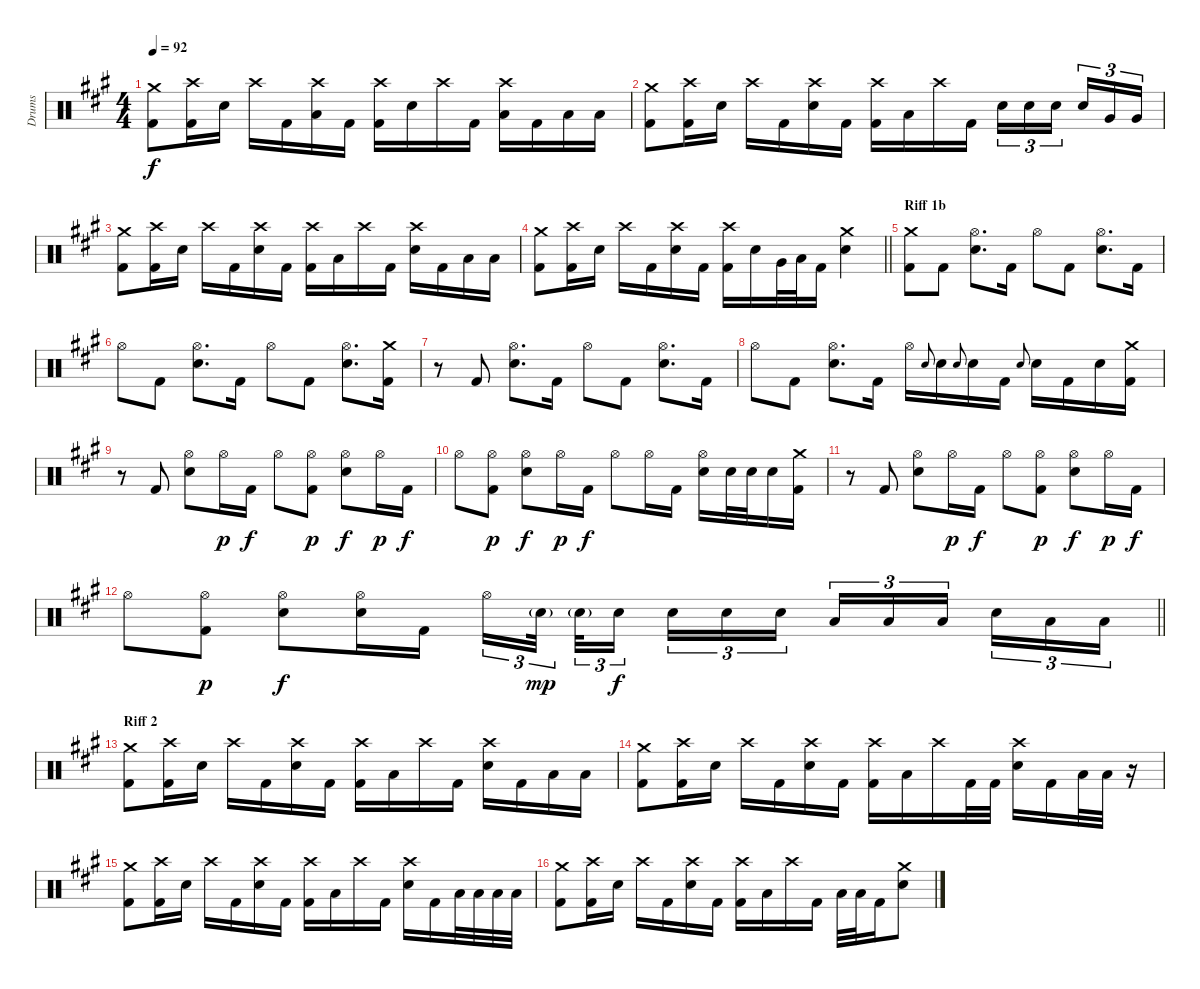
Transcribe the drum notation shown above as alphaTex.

\track ("Drums" "Drums") {instrument percussion}
\staff {score}
\articulation defaults
\ts (4 4)
\tempo 92
\clef neutral
\ks a
("Crash medium (hit)" "Kick (hit) 2").8{dy f} ("Kick (hit) 2" "Crash high (hit)").16 "Electric Snare (hit)".16 "Crash high (hit)".16 "Kick (hit) 2".16 ("Low Tom (hit)" "Crash high (hit)").16 "Kick (hit) 2".16 ("Crash high (hit)" "Kick (hit) 2").16 "Electric Snare (hit)".16 "Crash high (hit)".16 "Kick (hit) 2".16 ("Low Tom (hit)" "Crash high (hit)").16 "Kick (hit) 2".16 "Low Tom (hit)".16 "Low Floor Tom (hit)".16 |
("Crash medium (hit)" "Kick (hit) 2").8 ("Kick (hit) 2" "Crash high (hit)").16 "Electric Snare (hit)".16 "Crash high (hit)".16 "Kick (hit) 2".16 ("Electric Snare (hit)" "Crash high (hit)").16 "Kick (hit) 2".16 ("Crash high (hit)" "Kick (hit) 2").16 "Low Tom (hit)".16 "Crash high (hit)".16 "Kick (hit) 2".16 "Electric Snare (hit)".16{tu (3 2)} "Electric Snare (hit)".16{tu (3 2)} "Electric Snare (hit)".16{tu (3 2) beam splitsecondary} "Electric Snare (hit)".16{tu (3 2)} "Very Low Tom (hit)".16{tu (3 2)} "Very Low Tom (hit)".16{tu (3 2)} |
("Crash medium (hit)" "Kick (hit) 2").8 ("Kick (hit) 2" "Crash high (hit)").16 "Electric Snare (hit)".16 "Crash high (hit)".16 "Kick (hit) 2".16 ("Electric Snare (hit)" "Crash high (hit)").16 "Kick (hit) 2".16 ("Crash high (hit)" "Kick (hit) 2").16 "Low Tom (hit)".16 "Crash high (hit)".16 "Kick (hit) 2".16 ("Electric Snare (hit)" "Crash high (hit)").16 "Kick (hit) 2".16 "Low Floor Tom (hit)".16 "Low Floor Tom (hit)".16 |
\barLineRight lightlight
("Crash medium (hit)" "Kick (hit) 2").8 ("Kick (hit) 2" "Crash high (hit)").16 "Electric Snare (hit)".16 "Crash high (hit)".16 "Kick (hit) 2".16 ("Electric Snare (hit)" "Crash high (hit)").16 "Kick (hit) 2".16 ("Kick (hit) 2" "Crash high (hit)").16 "Electric Snare (hit)".16 "Very Low Tom (hit)".32 "Low Floor Tom (hit)".32 "Kick (hit) 2".16 ("Crash medium (hit)" "Electric Snare (hit)").4 |
\section ("" "Riff 1b")
("Crash medium (hit)" "Kick (hit) 2").8 "Kick (hit) 2".8 ("Electric Snare (hit)" "Hi-Hat (open)").8{d} "Kick (hit) 2".16 "Hi-Hat (open)".8 "Kick (hit) 2".8 ("Electric Snare (hit)" "Hi-Hat (open)").8{d} "Kick (hit) 2".16 |
"Hi-Hat (open)".8 "Kick (hit) 2".8 ("Electric Snare (hit)" "Hi-Hat (open)").8{d} "Kick (hit) 2".16 "Hi-Hat (open)".8 "Kick (hit) 2".8 ("Electric Snare (hit)" "Hi-Hat (open)").8{d} ("Kick (hit) 2" "Crash medium (hit)").16 |
r.8 "Kick (hit) 2".8 ("Electric Snare (hit)" "Hi-Hat (open)").8{d} "Kick (hit) 2".16 "Hi-Hat (open)".8 "Kick (hit) 2".8 ("Electric Snare (hit)" "Hi-Hat (open)").8{d} "Kick (hit) 2".16 |
"Hi-Hat (open)".8 "Kick (hit) 2".8 ("Electric Snare (hit)" "Hi-Hat (open)").8{d} "Kick (hit) 2".16 "Hi-Hat (open)".16 "Electric Snare (hit)".8{gr onbeat} "Electric Snare (hit)".16 "Electric Snare (hit)".8{gr onbeat} "Electric Snare (hit)".16 "Kick (hit) 2".16 "Electric Snare (hit)".8{gr onbeat} "Electric Snare (hit)".16 "Kick (hit) 2".16 "Electric Snare (hit)".16 ("Kick (hit) 2" "Crash medium (hit)").16 |
r.8 "Kick (hit) 2".8 ("Electric Snare (hit)" "Hi-Hat (open)").8 "Hi-Hat (open)".16{dy p} "Kick (hit) 2".16{dy f} "Hi-Hat (open)".8 ("Kick (hit) 2" "Hi-Hat (open)").8{dy p} ("Electric Snare (hit)" "Hi-Hat (open)").8{dy f} "Hi-Hat (open)".16{dy p} "Kick (hit) 2".16{dy f} |
"Hi-Hat (open)".8 ("Kick (hit) 2" "Hi-Hat (open)").8{dy p} ("Electric Snare (hit)" "Hi-Hat (open)").8{dy f} "Hi-Hat (open)".16{dy p} "Kick (hit) 2".16{dy f} "Hi-Hat (open)".8 "Hi-Hat (open)".16 "Kick (hit) 2".16 ("Electric Snare (hit)" "Hi-Hat (open)").16 "Electric Snare (hit)".32 "Electric Snare (hit)".32 "Electric Snare (hit)".16 ("Kick (hit) 2" "Crash medium (hit)").16 |
r.8 "Kick (hit) 2".8 ("Electric Snare (hit)" "Hi-Hat (open)").8 "Hi-Hat (open)".16{dy p} "Kick (hit) 2".16{dy f} "Hi-Hat (open)".8 ("Kick (hit) 2" "Hi-Hat (open)").8{dy p} ("Electric Snare (hit)" "Hi-Hat (open)").8{dy f} "Hi-Hat (open)".16{dy p} "Kick (hit) 2".16{dy f} |
\barLineRight lightlight "Hi-Hat (open)".8
("Kick (hit) 2" "Hi-Hat (open)").8{dy p} ("Electric Snare (hit)" "Hi-Hat (open)").8{dy f} ("Electric Snare (hit)" "Hi-Hat (open)").16 "Kick (hit) 2".16 "Hi-Hat (open)".16{tu (3 2)} "Electric Snare (hit)"{g}.32{tu (3 2) dy mp beam splitsecondary} "Electric Snare (hit)"{g}.32{tu (3 2)} "Electric Snare (hit)".16{tu (3 2) dy f beam splitsecondary} "Electric Snare (hit)".16{tu (3 2)} "Electric Snare (hit)".16{tu (3 2)} "Electric Snare (hit)".16{tu (3 2)} "Low Tom (hit)".16{tu (3 2)} "Low Tom (hit)".16{tu (3 2)} "Low Tom (hit)".16{tu (3 2) beam splitsecondary} "Electric Snare (hit)".16{tu (3 2)} "Low Tom (hit)".16{tu (3 2)} "Low Tom (hit)".16{tu (3 2)} |
\section ("" "Riff 2")
("Crash medium (hit)" "Kick (hit) 2").8 ("Kick (hit) 2" "Crash high (hit)").16 "Electric Snare (hit)".16 "Crash high (hit)".16 "Kick (hit) 2".16 ("Electric Snare (hit)" "Crash high (hit)").16 "Kick (hit) 2".16 ("Crash high (hit)" "Kick (hit) 2").16 "Low Tom (hit)".16 "Crash high (hit)".16 "Kick (hit) 2".16 ("Electric Snare (hit)" "Crash high (hit)").16 "Kick (hit) 2".16 "Low Tom (hit)".16 "Low Floor Tom (hit)".16 |
("Crash medium (hit)" "Kick (hit) 2").8 ("Kick (hit) 2" "Crash high (hit)").16 "Electric Snare (hit)".16 "Crash high (hit)".16 "Kick (hit) 2".16 ("Electric Snare (hit)" "Crash high (hit)").16 "Kick (hit) 2".16 ("Crash high (hit)" "Kick (hit) 2").16 "Low Tom (hit)".16 "Crash high (hit)".16 "Kick (hit) 2".32 "Kick (hit) 2".32 ("Electric Snare (hit)" "Crash high (hit)").16 "Kick (hit) 2".16 "Low Floor Tom (hit)".32 "Low Floor Tom (hit)".32 r.16 |
("Crash medium (hit)" "Kick (hit) 2").8 ("Kick (hit) 2" "Crash high (hit)").16 "Electric Snare (hit)".16 "Crash high (hit)".16 "Kick (hit) 2".16 ("Electric Snare (hit)" "Crash high (hit)").16 "Kick (hit) 2".16 ("Crash high (hit)" "Kick (hit) 2").16 "Low Tom (hit)".16 "Crash high (hit)".16 "Kick (hit) 2".16 ("Electric Snare (hit)" "Crash high (hit)").16 "Kick (hit) 2".16 "Low Floor Tom (hit)".32 "Low Floor Tom (hit)".32 "Low Floor Tom (hit)".32 "Low Floor Tom (hit)".32 |
("Crash medium (hit)" "Kick (hit) 2").8 ("Kick (hit) 2" "Crash high (hit)").16 "Electric Snare (hit)".16 "Crash high (hit)".16 "Kick (hit) 2".16 ("Electric Snare (hit)" "Crash high (hit)").16 "Kick (hit) 2".16 ("Crash high (hit)" "Kick (hit) 2").16 "Low Tom (hit)".16 "Crash high (hit)".16 "Kick (hit) 2".16 "Low Floor Tom (hit)".32 "Low Floor Tom (hit)".32 "Kick (hit) 2".16 ("Electric Snare (hit)" "Crash medium (hit)").8
